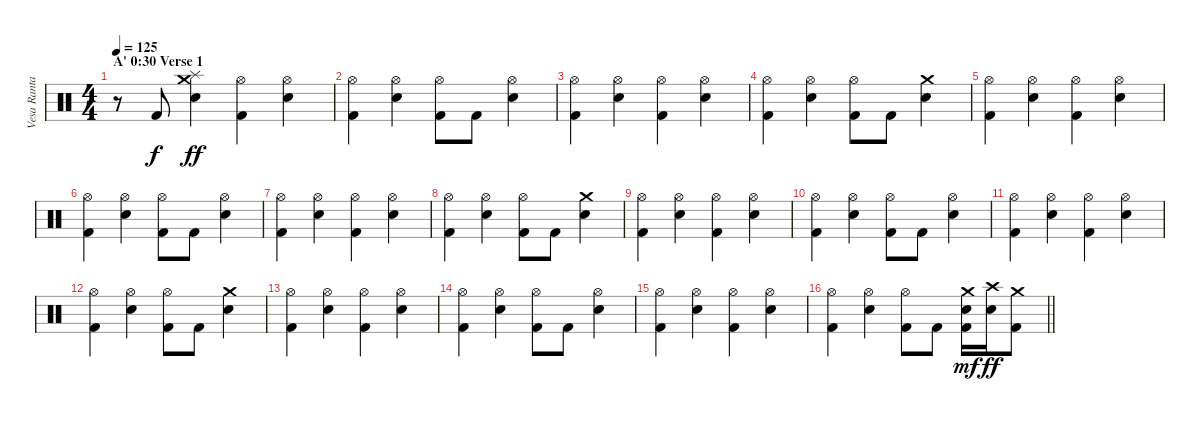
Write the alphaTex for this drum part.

\track ("Vesa Ranta (drums)" "Vesa Ranta") {instrument percussion}
\staff {score}
\articulation defaults
\ts (4 4)
\section ("" "A' 0:30 Verse 1")
\tempo 125
\clef neutral
\ks c
r.8{dy ff} "Kick (hit) 2".8{dy f} ("Splash (hit)" "Crash medium (hit)" "Electric Snare (hit)").4{dy ff} ("Hi-Hat (open)" "Kick (hit) 2").4 ("Hi-Hat (open)" "Electric Snare (hit)").4 |
("Hi-Hat (open)" "Kick (hit) 2").4 ("Hi-Hat (open)" "Electric Snare (hit)").4 ("Hi-Hat (open)" "Kick (hit) 2").8 "Kick (hit) 2".8 ("Hi-Hat (open)" "Electric Snare (hit)").4 |
("Hi-Hat (open)" "Kick (hit) 2").4 ("Hi-Hat (open)" "Electric Snare (hit)").4 ("Hi-Hat (open)" "Kick (hit) 2").4 ("Hi-Hat (open)" "Electric Snare (hit)").4 |
("Hi-Hat (open)" "Kick (hit) 2").4 ("Hi-Hat (open)" "Electric Snare (hit)").4 ("Hi-Hat (open)" "Kick (hit) 2").8 "Kick (hit) 2".8 ("Crash medium (hit)" "Electric Snare (hit)").4 |
("Hi-Hat (open)" "Kick (hit) 2").4 ("Hi-Hat (open)" "Electric Snare (hit)").4 ("Hi-Hat (open)" "Kick (hit) 2").4 ("Hi-Hat (open)" "Electric Snare (hit)").4 |
("Hi-Hat (open)" "Kick (hit) 2").4 ("Hi-Hat (open)" "Electric Snare (hit)").4 ("Hi-Hat (open)" "Kick (hit) 2").8 "Kick (hit) 2".8 ("Hi-Hat (open)" "Electric Snare (hit)").4 |
("Hi-Hat (open)" "Kick (hit) 2").4 ("Hi-Hat (open)" "Electric Snare (hit)").4 ("Hi-Hat (open)" "Kick (hit) 2").4 ("Hi-Hat (open)" "Electric Snare (hit)").4 |
("Hi-Hat (open)" "Kick (hit) 2").4 ("Hi-Hat (open)" "Electric Snare (hit)").4 ("Hi-Hat (open)" "Kick (hit) 2").8 "Kick (hit) 2".8 ("Crash medium (hit)" "Electric Snare (hit)").4 |
("Hi-Hat (open)" "Kick (hit) 2").4 ("Hi-Hat (open)" "Electric Snare (hit)").4 ("Hi-Hat (open)" "Kick (hit) 2").4 ("Hi-Hat (open)" "Electric Snare (hit)").4 |
("Hi-Hat (open)" "Kick (hit) 2").4 ("Hi-Hat (open)" "Electric Snare (hit)").4 ("Hi-Hat (open)" "Kick (hit) 2").8 "Kick (hit) 2".8 ("Hi-Hat (open)" "Electric Snare (hit)").4 |
("Hi-Hat (open)" "Kick (hit) 2").4 ("Hi-Hat (open)" "Electric Snare (hit)").4 ("Hi-Hat (open)" "Kick (hit) 2").4 ("Hi-Hat (open)" "Electric Snare (hit)").4 |
("Hi-Hat (open)" "Kick (hit) 2").4 ("Hi-Hat (open)" "Electric Snare (hit)").4 ("Hi-Hat (open)" "Kick (hit) 2").8 "Kick (hit) 2".8 ("Crash medium (hit)" "Electric Snare (hit)").4 |
("Hi-Hat (open)" "Kick (hit) 2").4 ("Hi-Hat (open)" "Electric Snare (hit)").4 ("Hi-Hat (open)" "Kick (hit) 2").4 ("Hi-Hat (open)" "Electric Snare (hit)").4 |
("Hi-Hat (open)" "Kick (hit) 2").4 ("Hi-Hat (open)" "Electric Snare (hit)").4 ("Hi-Hat (open)" "Kick (hit) 2").8 "Kick (hit) 2".8 ("Hi-Hat (open)" "Electric Snare (hit)").4 |
("Hi-Hat (open)" "Kick (hit) 2").4 ("Hi-Hat (open)" "Electric Snare (hit)").4 ("Hi-Hat (open)" "Kick (hit) 2").4 ("Hi-Hat (open)" "Electric Snare (hit)").4 |
\barLineRight lightlight
("Hi-Hat (open)" "Kick (hit) 2").4 ("Hi-Hat (open)" "Electric Snare (hit)").4 ("Hi-Hat (open)" "Kick (hit) 2").8 "Kick (hit) 2".8 ("Crash medium (hit)" "Electric Snare (hit)" "Kick (hit) 2").16{dy mf} ("Crash high (hit)" "Electric Snare (hit)").16{dy ff} ("Crash medium (hit)" "Kick (hit) 2").8
